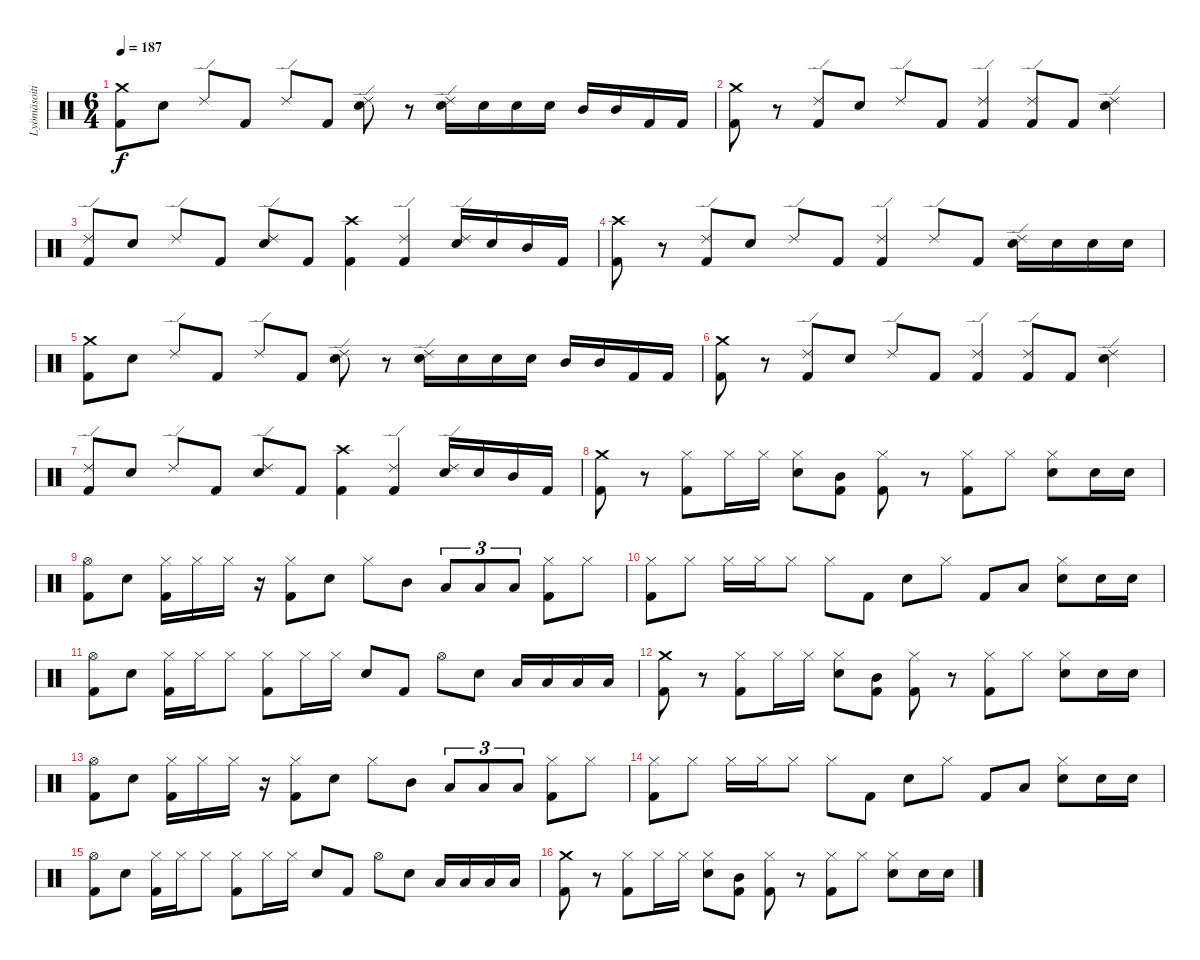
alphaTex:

\track ("Lyömäsoitin" "Lyömäsoiti") {instrument percussion}
\staff {score}
\articulation defaults
\ts (6 4)
\tempo 187
\clef neutral
\ks c
("Kick (hit) 2" "Crash medium (hit)").8{dy f} "Snare (hit) 2".8 "Ride (edge) 2".8 "Kick (hit) 2".8 "Ride (edge) 2".8 "Kick (hit) 2".8 ("Ride (edge) 2" "Snare (hit) 2").8 r.8 ("Ride (edge) 2" "Snare (hit) 2").16 "Snare (hit) 2".16 "Snare (hit) 2".16 "Snare (hit) 2".16 "Mid Tom (hit)".16 "Mid Tom (hit)".16 "Kick (hit) 2".16 "Kick (hit) 2".16 |
("Kick (hit) 2" "Crash medium (hit)").8 r.8 ("Kick (hit) 2" "Ride (edge) 2").8 "Snare (hit) 2".8 "Ride (edge) 2".8 "Kick (hit) 2".8 ("Ride (edge) 2" "Kick (hit) 2").4 ("Ride (edge) 2" "Kick (hit) 2").8 "Kick (hit) 2".8 ("Ride (edge) 2" "Snare (hit) 2").4 |
("Ride (edge) 2" "Kick (hit) 2").8 "Snare (hit) 2".8 "Ride (edge) 2".8 "Kick (hit) 2".8 ("Ride (edge) 2" "Snare (hit) 2").8 "Kick (hit) 2".8 ("Crash high (hit)" "Kick (hit) 2").4 ("Ride (edge) 2" "Kick (hit) 2").4 ("Snare (hit) 2" "Ride (edge) 2").16 "Snare (hit) 2".16 "Mid Tom (hit)".16 "Kick (hit) 2".16 |
("Kick (hit) 2" "Crash high (hit)").8 r.8 ("Ride (edge) 2" "Kick (hit) 2").8 "Snare (hit) 2".8 "Ride (edge) 2".8 "Kick (hit) 2".8 ("Ride (edge) 2" "Kick (hit) 2").4 "Ride (edge) 2".8 "Kick (hit) 2".8 ("Ride (edge) 2" "Snare (hit) 2").16 "Snare (hit) 2".16 "Snare (hit) 2".16 "Snare (hit) 2".16 |
("Kick (hit) 2" "Crash medium (hit)").8 "Snare (hit) 2".8 "Ride (edge) 2".8 "Kick (hit) 2".8 "Ride (edge) 2".8 "Kick (hit) 2".8 ("Ride (edge) 2" "Snare (hit) 2").8 r.8 ("Ride (edge) 2" "Snare (hit) 2").16 "Snare (hit) 2".16 "Snare (hit) 2".16 "Snare (hit) 2".16 "Mid Tom (hit)".16 "Mid Tom (hit)".16 "Kick (hit) 2".16 "Kick (hit) 2".16 |
("Kick (hit) 2" "Crash medium (hit)").8 r.8 ("Kick (hit) 2" "Ride (edge) 2").8 "Snare (hit) 2".8 "Ride (edge) 2".8 "Kick (hit) 2".8 ("Ride (edge) 2" "Kick (hit) 2").4 ("Ride (edge) 2" "Kick (hit) 2").8 "Kick (hit) 2".8 ("Ride (edge) 2" "Snare (hit) 2").4 |
("Ride (edge) 2" "Kick (hit) 2").8 "Snare (hit) 2".8 "Ride (edge) 2".8 "Kick (hit) 2".8 ("Ride (edge) 2" "Snare (hit) 2").8 "Kick (hit) 2".8 ("Crash high (hit)" "Kick (hit) 2").4 ("Ride (edge) 2" "Kick (hit) 2").4 ("Snare (hit) 2" "Ride (edge) 2").16 "Snare (hit) 2".16 "Mid Tom (hit)".16 "Kick (hit) 2".16 |
("Kick (hit) 2" "Crash medium (hit)").8 r.8 ("Kick (hit) 2" "Hi-Hat (closed)").8 "Hi-Hat (closed)".16 "Hi-Hat (closed)".16 ("Hi-Hat (closed)" "Snare (hit) 2").8 ("Kick (hit) 2" "Mid Tom (hit)").8 ("Kick (hit) 2" "Hi-Hat (closed)").8 r.8 ("Hi-Hat (closed)" "Kick (hit) 2").8 "Hi-Hat (closed)".8 ("Snare (hit) 2" "Hi-Hat (closed)").8 "Snare (hit) 2".16 "Snare (hit) 2".16 |
("Kick (hit) 2" "Hi-Hat (open)").8 "Snare (hit) 2".8 ("Kick (hit) 2" "Hi-Hat (closed)").16 "Hi-Hat (closed)".16 "Hi-Hat (closed)".16 r.16 ("Kick (hit) 2" "Hi-Hat (closed)").8 "Snare (hit) 2".8 "Hi-Hat (closed)".8 "Mid Tom (hit)".8 "Low Tom (hit)".8{tu (3 2)} "Low Tom (hit)".8{tu (3 2)} "Low Tom (hit)".8{tu (3 2)} ("Hi-Hat (closed)" "Kick (hit) 2").8 "Hi-Hat (closed)".8 |
("Kick (hit) 2" "Hi-Hat (closed)").8 "Hi-Hat (closed)".8 "Hi-Hat (closed)".16 "Hi-Hat (closed)".16 "Hi-Hat (closed)".8 "Hi-Hat (closed)".8 "Kick (hit) 2".8 "Snare (hit) 2".8 "Hi-Hat (closed)".8 "Kick (hit) 2".8 "Low Tom (hit)".8 ("Snare (hit) 2" "Hi-Hat (closed)").8 "Snare (hit) 2".16 "Snare (hit) 2".16 |
("Hi-Hat (open)" "Kick (hit) 2").8 "Snare (hit) 2".8 ("Hi-Hat (closed)" "Kick (hit) 2").16 "Hi-Hat (closed)".16 "Hi-Hat (closed)".8 ("Kick (hit) 2" "Hi-Hat (closed)").8 "Hi-Hat (closed)".16 "Hi-Hat (closed)".16 "Snare (hit) 2".8 "Kick (hit) 2".8 "Hi-Hat (open)".8 "Snare (hit) 2".8 "Low Tom (hit)".16 "Low Tom (hit)".16 "Low Tom (hit)".16 "Low Tom (hit)".16 |
("Kick (hit) 2" "Crash medium (hit)").8 r.8 ("Kick (hit) 2" "Hi-Hat (closed)").8 "Hi-Hat (closed)".16 "Hi-Hat (closed)".16 ("Hi-Hat (closed)" "Snare (hit) 2").8 ("Kick (hit) 2" "Mid Tom (hit)").8 ("Kick (hit) 2" "Hi-Hat (closed)").8 r.8 ("Hi-Hat (closed)" "Kick (hit) 2").8 "Hi-Hat (closed)".8 ("Snare (hit) 2" "Hi-Hat (closed)").8 "Snare (hit) 2".16 "Snare (hit) 2".16 |
("Kick (hit) 2" "Hi-Hat (open)").8 "Snare (hit) 2".8 ("Kick (hit) 2" "Hi-Hat (closed)").16 "Hi-Hat (closed)".16 "Hi-Hat (closed)".16 r.16 ("Kick (hit) 2" "Hi-Hat (closed)").8 "Snare (hit) 2".8 "Hi-Hat (closed)".8 "Mid Tom (hit)".8 "Low Tom (hit)".8{tu (3 2)} "Low Tom (hit)".8{tu (3 2)} "Low Tom (hit)".8{tu (3 2)} ("Hi-Hat (closed)" "Kick (hit) 2").8 "Hi-Hat (closed)".8 |
("Kick (hit) 2" "Hi-Hat (closed)").8 "Hi-Hat (closed)".8 "Hi-Hat (closed)".16 "Hi-Hat (closed)".16 "Hi-Hat (closed)".8 "Hi-Hat (closed)".8 "Kick (hit) 2".8 "Snare (hit) 2".8 "Hi-Hat (closed)".8 "Kick (hit) 2".8 "Low Tom (hit)".8 ("Snare (hit) 2" "Hi-Hat (closed)").8 "Snare (hit) 2".16 "Snare (hit) 2".16 |
("Hi-Hat (open)" "Kick (hit) 2").8 "Snare (hit) 2".8 ("Hi-Hat (closed)" "Kick (hit) 2").16 "Hi-Hat (closed)".16 "Hi-Hat (closed)".8 ("Kick (hit) 2" "Hi-Hat (closed)").8 "Hi-Hat (closed)".16 "Hi-Hat (closed)".16 "Snare (hit) 2".8 "Kick (hit) 2".8 "Hi-Hat (open)".8 "Snare (hit) 2".8 "Low Tom (hit)".16 "Low Tom (hit)".16 "Low Tom (hit)".16 "Low Tom (hit)".16 |
("Kick (hit) 2" "Crash medium (hit)").8 r.8 ("Kick (hit) 2" "Hi-Hat (closed)").8 "Hi-Hat (closed)".16 "Hi-Hat (closed)".16 ("Hi-Hat (closed)" "Snare (hit) 2").8 ("Kick (hit) 2" "Mid Tom (hit)").8 ("Kick (hit) 2" "Hi-Hat (closed)").8 r.8 ("Hi-Hat (closed)" "Kick (hit) 2").8 "Hi-Hat (closed)".8 ("Snare (hit) 2" "Hi-Hat (closed)").8 "Snare (hit) 2".16 "Snare (hit) 2".16
